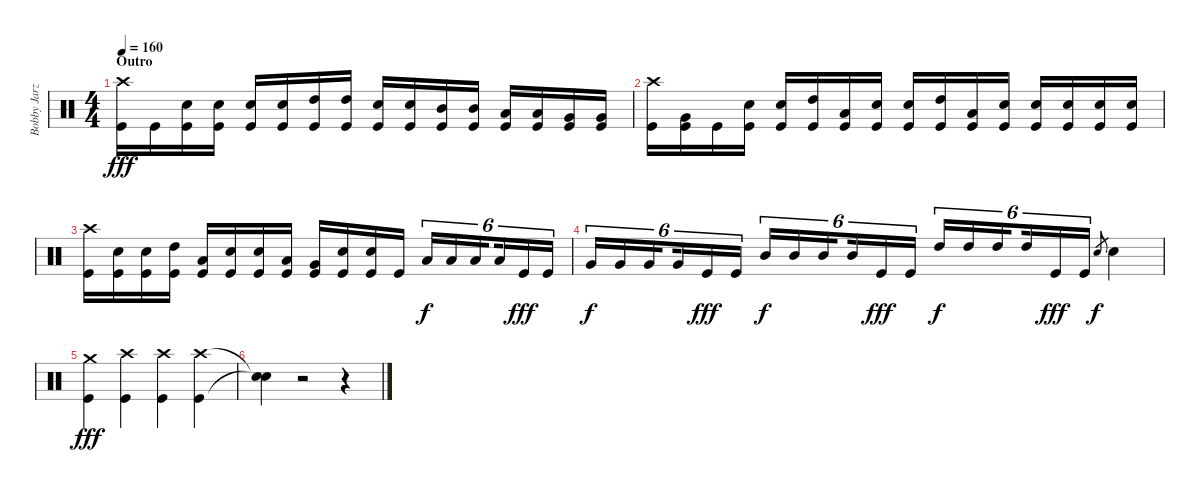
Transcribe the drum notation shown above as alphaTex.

\track ("Bobby Jarzombek" "Bobby Jarz") {instrument percussion}
\staff {score}
\articulation defaults
\ts (4 4)
\section ("" "Outro")
\tempo 160
\clef neutral
\ks c
("Crash high (hit)" "Kick (hit)").16{dy fff} "Kick (hit)".16 ("Electric Snare (hit)" "Kick (hit)").16 ("Electric Snare (hit)" "Kick (hit)").16 ("Electric Snare (hit)" "Kick (hit)").16 ("Electric Snare (hit)" "Kick (hit)").16 ("High Tom (hit)" "Kick (hit)").16 ("High Tom (hit)" "Kick (hit)").16 ("Electric Snare (hit)" "Kick (hit)").16 ("Electric Snare (hit)" "Kick (hit)").16 ("Mid Tom (hit)" "Kick (hit)").16 ("Mid Tom (hit)" "Kick (hit)").16 ("Low Tom (hit)" "Kick (hit)").16 ("Low Tom (hit)" "Kick (hit)").16 ("Very Low Tom (hit)" "Kick (hit)").16 ("Very Low Tom (hit)" "Kick (hit)").16 |
("Crash high (hit)" "Kick (hit)").16 ("Very Low Tom (hit)" "Kick (hit)").16 "Kick (hit)".16 ("Electric Snare (hit)" "Kick (hit)").16 ("Electric Snare (hit)" "Kick (hit)").16 ("High Tom (hit)" "Kick (hit)").16 ("Low Tom (hit)" "Kick (hit)").16 ("Electric Snare (hit)" "Kick (hit)").16 ("Electric Snare (hit)" "Kick (hit)").16 ("High Tom (hit)" "Kick (hit)").16 ("Low Tom (hit)" "Kick (hit)").16 ("Electric Snare (hit)" "Kick (hit)").16 ("Electric Snare (hit)" "Kick (hit)").16 ("Electric Snare (hit)" "Kick (hit)").16 ("Electric Snare (hit)" "Kick (hit)").16 ("Electric Snare (hit)" "Kick (hit)").16 |
("Crash high (hit)" "Kick (hit)").16 ("Electric Snare (hit)" "Kick (hit)").16 ("Electric Snare (hit)" "Kick (hit)").16 ("High Tom (hit)" "Kick (hit)").16 ("Low Tom (hit)" "Kick (hit)").16 ("Electric Snare (hit)" "Kick (hit)").16 ("Electric Snare (hit)" "Kick (hit)").16 ("Low Tom (hit)" "Kick (hit)").16 ("Very Low Tom (hit)" "Kick (hit)").16 ("Electric Snare (hit)" "Kick (hit)").16 ("Electric Snare (hit)" "Kick (hit)").16 "Kick (hit)".16 "Low Tom (hit)".16{tu (6 4) dy f} "Low Tom (hit)".16{tu (6 4)} "Low Tom (hit)".16{tu (6 4) beam splitsecondary} "Low Tom (hit)".16{tu (6 4)} "Kick (hit)".16{tu (6 4) dy fff} "Kick (hit)".16{tu (6 4)} |
"Very Low Tom (hit)".16{tu (6 4) dy f} "Very Low Tom (hit)".16{tu (6 4)} "Very Low Tom (hit)".16{tu (6 4) beam splitsecondary} "Very Low Tom (hit)".16{tu (6 4)} "Kick (hit)".16{tu (6 4) dy fff} "Kick (hit)".16{tu (6 4)} "Mid Tom (hit)".16{tu (6 4) dy f} "Mid Tom (hit)".16{tu (6 4)} "Mid Tom (hit)".16{tu (6 4) beam splitsecondary} "Mid Tom (hit)".16{tu (6 4)} "Kick (hit)".16{tu (6 4) dy fff} "Kick (hit)".16{tu (6 4)} "High Tom (hit)".16{tu (6 4) dy f} "High Tom (hit)".16{tu (6 4)} "High Tom (hit)".16{tu (6 4) beam splitsecondary} "High Tom (hit)".16{tu (6 4)} "Kick (hit)".16{tu (6 4) dy fff} "Kick (hit)".16{tu (6 4)} "Electric Snare (hit)".8{gr dy f} "Electric Snare (hit)".4 |
("Crash medium (hit)" "Kick (hit)").4{dy fff} ("Crash high (hit)" "Kick (hit)").4 ("Crash high (hit)" "Kick (hit)").4 ("Crash high (hit)" "Kick (hit)").4 |
("Snare (hit)"{t} "Snare (hit)"{t}).4 r.2 r.4
